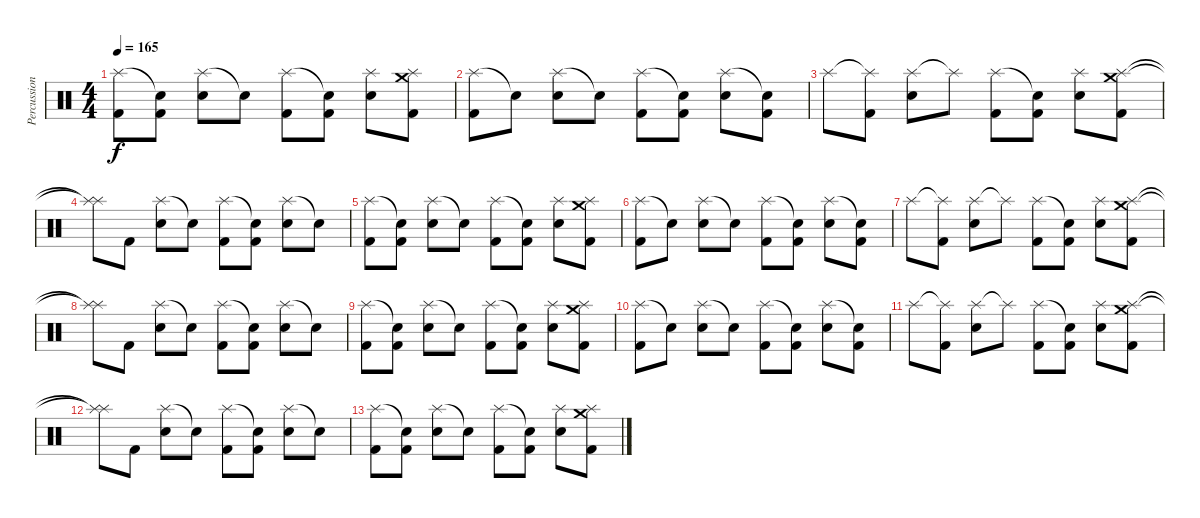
\track ("Percussion" "Percussion") {instrument percussion}
\staff {score}
\articulation defaults
\ts (4 4)
\tempo 165
\clef neutral
\ks c
("Splash (hit)" "Kick (hit) 2").8{dy f} ("Snare (hit)"{t} "Kick (hit) 2").8 ("Splash (hit)" "Electric Snare (hit)").8 "Snare (hit)"{t}.8 ("Splash (hit)" "Kick (hit) 2").8 ("Snare (hit)"{t} "Kick (hit) 2").8 ("Splash (hit)" "Electric Snare (hit)").8 ("Crash medium (hit)" "Splash (hit)" "Kick (hit) 2").8 |
("Splash (hit)" "Kick (hit) 2").8 "Snare (hit)"{t}.8 ("Splash (hit)" "Electric Snare (hit)").8 "Snare (hit)"{t}.8 ("Splash (hit)" "Kick (hit) 2").8 ("Snare (hit)"{t} "Kick (hit) 2").8 ("Splash (hit)" "Electric Snare (hit)").8 ("Snare (hit)"{t} "Kick (hit) 2").8 |
"Splash (hit)".8 ("Splash (hit)"{t} "Kick (hit) 2").8 ("Splash (hit)" "Electric Snare (hit)").8 "Splash (hit)"{t}.8 ("Splash (hit)" "Kick (hit) 2").8 ("Snare (hit)"{t} "Kick (hit) 2").8 ("Splash (hit)" "Electric Snare (hit)").8 ("Crash medium (hit)" "Splash (hit)" "Kick (hit) 2").8 |
("Splash (hit)"{t} "Splash (hit)"{t}).8 "Kick (hit) 2".8 ("Splash (hit)" "Electric Snare (hit)").8 "Snare (hit)"{t}.8 ("Splash (hit)" "Kick (hit) 2").8 ("Snare (hit)"{t} "Kick (hit) 2").8 ("Splash (hit)" "Electric Snare (hit)").8 "Snare (hit)"{t}.8 |
("Splash (hit)" "Kick (hit) 2").8 ("Snare (hit)"{t} "Kick (hit) 2").8 ("Splash (hit)" "Electric Snare (hit)").8 "Snare (hit)"{t}.8 ("Splash (hit)" "Kick (hit) 2").8 ("Snare (hit)"{t} "Kick (hit) 2").8 ("Splash (hit)" "Electric Snare (hit)").8 ("Crash medium (hit)" "Splash (hit)" "Kick (hit) 2").8 |
("Splash (hit)" "Kick (hit) 2").8 "Snare (hit)"{t}.8 ("Splash (hit)" "Electric Snare (hit)").8 "Snare (hit)"{t}.8 ("Splash (hit)" "Kick (hit) 2").8 ("Snare (hit)"{t} "Kick (hit) 2").8 ("Splash (hit)" "Electric Snare (hit)").8 ("Snare (hit)"{t} "Kick (hit) 2").8 |
"Splash (hit)".8 ("Splash (hit)"{t} "Kick (hit) 2").8 ("Splash (hit)" "Electric Snare (hit)").8 "Splash (hit)"{t}.8 ("Splash (hit)" "Kick (hit) 2").8 ("Snare (hit)"{t} "Kick (hit) 2").8 ("Splash (hit)" "Electric Snare (hit)").8 ("Crash medium (hit)" "Splash (hit)" "Kick (hit) 2").8 |
("Splash (hit)"{t} "Splash (hit)"{t}).8 "Kick (hit) 2".8 ("Splash (hit)" "Electric Snare (hit)").8 "Snare (hit)"{t}.8 ("Splash (hit)" "Kick (hit) 2").8 ("Snare (hit)"{t} "Kick (hit) 2").8 ("Splash (hit)" "Electric Snare (hit)").8 "Snare (hit)"{t}.8 |
("Splash (hit)" "Kick (hit) 2").8 ("Snare (hit)"{t} "Kick (hit) 2").8 ("Splash (hit)" "Electric Snare (hit)").8 "Snare (hit)"{t}.8 ("Splash (hit)" "Kick (hit) 2").8 ("Snare (hit)"{t} "Kick (hit) 2").8 ("Splash (hit)" "Electric Snare (hit)").8 ("Crash medium (hit)" "Splash (hit)" "Kick (hit) 2").8 |
("Splash (hit)" "Kick (hit) 2").8 "Snare (hit)"{t}.8 ("Splash (hit)" "Electric Snare (hit)").8 "Snare (hit)"{t}.8 ("Splash (hit)" "Kick (hit) 2").8 ("Snare (hit)"{t} "Kick (hit) 2").8 ("Splash (hit)" "Electric Snare (hit)").8 ("Snare (hit)"{t} "Kick (hit) 2").8 |
"Splash (hit)".8 ("Splash (hit)"{t} "Kick (hit) 2").8 ("Splash (hit)" "Electric Snare (hit)").8 "Splash (hit)"{t}.8 ("Splash (hit)" "Kick (hit) 2").8 ("Snare (hit)"{t} "Kick (hit) 2").8 ("Splash (hit)" "Electric Snare (hit)").8 ("Crash medium (hit)" "Splash (hit)" "Kick (hit) 2").8 |
("Splash (hit)"{t} "Splash (hit)"{t}).8 "Kick (hit) 2".8 ("Splash (hit)" "Electric Snare (hit)").8 "Snare (hit)"{t}.8 ("Splash (hit)" "Kick (hit) 2").8 ("Snare (hit)"{t} "Kick (hit) 2").8 ("Splash (hit)" "Electric Snare (hit)").8 "Snare (hit)"{t}.8 |
("Splash (hit)" "Kick (hit) 2").8 ("Snare (hit)"{t} "Kick (hit) 2").8 ("Splash (hit)" "Electric Snare (hit)").8 "Snare (hit)"{t}.8 ("Splash (hit)" "Kick (hit) 2").8 ("Snare (hit)"{t} "Kick (hit) 2").8 ("Splash (hit)" "Electric Snare (hit)").8 ("Crash medium (hit)" "Splash (hit)" "Kick (hit) 2").8
